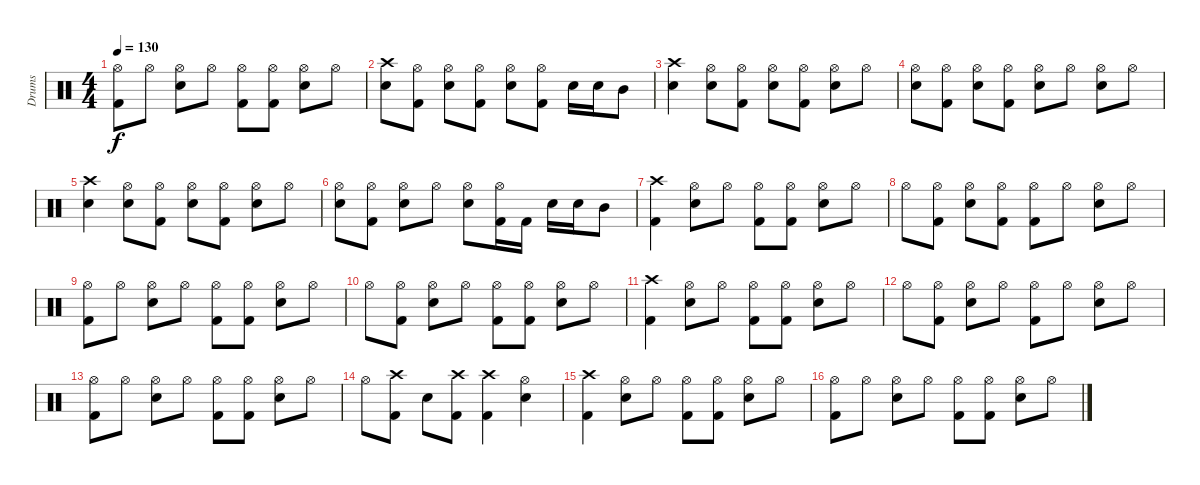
\track ("Drums" "Drums") {instrument percussion}
\staff {score}
\articulation defaults
\ts (4 4)
\tempo 130
\clef neutral
\ks c
("Hi-Hat (open)" "Kick (hit) 2").8{dy f} "Hi-Hat (open)".8 ("Hi-Hat (open)" "Electric Snare (hit)").8 "Hi-Hat (open)".8 ("Hi-Hat (open)" "Kick (hit) 2").8 ("Hi-Hat (open)" "Kick (hit) 2").8 ("Hi-Hat (open)" "Electric Snare (hit)").8 "Hi-Hat (open)".8 |
("Crash high (hit)" "Electric Snare (hit)").8 ("Hi-Hat (open)" "Kick (hit) 2").8 ("Hi-Hat (open)" "Electric Snare (hit)").8 ("Hi-Hat (open)" "Kick (hit) 2").8 ("Hi-Hat (open)" "Electric Snare (hit)").8 ("Hi-Hat (open)" "Kick (hit) 2").8 "Electric Snare (hit)".16 "Electric Snare (hit)".16 "Mid Tom (hit)".8 |
("Crash high (hit)" "Electric Snare (hit)").4 ("Hi-Hat (open)" "Electric Snare (hit)").8 ("Hi-Hat (open)" "Kick (hit) 2").8 ("Hi-Hat (open)" "Electric Snare (hit)").8 ("Hi-Hat (open)" "Kick (hit) 2").8 ("Hi-Hat (open)" "Electric Snare (hit)").8 "Hi-Hat (open)".8 |
("Hi-Hat (open)" "Electric Snare (hit)").8 ("Hi-Hat (open)" "Kick (hit) 2").8 ("Hi-Hat (open)" "Electric Snare (hit)").8 ("Hi-Hat (open)" "Kick (hit) 2").8 ("Hi-Hat (open)" "Electric Snare (hit)").8 "Hi-Hat (open)".8 ("Hi-Hat (open)" "Electric Snare (hit)").8 "Hi-Hat (open)".8 |
("Crash high (hit)" "Electric Snare (hit)").4 ("Hi-Hat (open)" "Electric Snare (hit)").8 ("Hi-Hat (open)" "Kick (hit) 2").8 ("Hi-Hat (open)" "Electric Snare (hit)").8 ("Hi-Hat (open)" "Kick (hit) 2").8 ("Hi-Hat (open)" "Electric Snare (hit)").8 "Hi-Hat (open)".8 |
("Hi-Hat (open)" "Electric Snare (hit)").8 ("Hi-Hat (open)" "Kick (hit) 2").8 ("Hi-Hat (open)" "Electric Snare (hit)").8 "Hi-Hat (open)".8 ("Hi-Hat (open)" "Electric Snare (hit)").8 ("Hi-Hat (open)" "Kick (hit) 2").16 "Kick (hit) 2".16 "Electric Snare (hit)".16 "Electric Snare (hit)".16 "Mid Tom (hit)".8 |
("Crash high (hit)" "Kick (hit) 2").4 ("Hi-Hat (open)" "Electric Snare (hit)").8 "Hi-Hat (open)".8 ("Hi-Hat (open)" "Kick (hit) 2").8 ("Hi-Hat (open)" "Kick (hit) 2").8 ("Hi-Hat (open)" "Electric Snare (hit)").8 "Hi-Hat (open)".8 |
"Hi-Hat (open)".8 ("Hi-Hat (open)" "Kick (hit) 2").8 ("Hi-Hat (open)" "Electric Snare (hit)").8 ("Hi-Hat (open)" "Kick (hit) 2").8 ("Hi-Hat (open)" "Kick (hit) 2").8 "Hi-Hat (open)".8 ("Hi-Hat (open)" "Electric Snare (hit)").8 "Hi-Hat (open)".8 |
("Hi-Hat (open)" "Kick (hit) 2").8 "Hi-Hat (open)".8 ("Hi-Hat (open)" "Electric Snare (hit)").8 "Hi-Hat (open)".8 ("Hi-Hat (open)" "Kick (hit) 2").8 ("Hi-Hat (open)" "Kick (hit) 2").8 ("Hi-Hat (open)" "Electric Snare (hit)").8 "Hi-Hat (open)".8 |
"Hi-Hat (open)".8 ("Hi-Hat (open)" "Kick (hit) 2").8 ("Hi-Hat (open)" "Electric Snare (hit)").8 "Hi-Hat (open)".8 ("Hi-Hat (open)" "Kick (hit) 2").8 ("Hi-Hat (open)" "Kick (hit) 2").8 ("Hi-Hat (open)" "Electric Snare (hit)").8 "Hi-Hat (open)".8 |
("Crash high (hit)" "Kick (hit) 2").4 ("Hi-Hat (open)" "Electric Snare (hit)").8 "Hi-Hat (open)".8 ("Hi-Hat (open)" "Kick (hit) 2").8 ("Hi-Hat (open)" "Kick (hit) 2").8 ("Hi-Hat (open)" "Electric Snare (hit)").8 "Hi-Hat (open)".8 |
"Hi-Hat (open)".8 ("Hi-Hat (open)" "Kick (hit) 2").8 ("Hi-Hat (open)" "Electric Snare (hit)").8 "Hi-Hat (open)".8 ("Hi-Hat (open)" "Kick (hit) 2").8 "Hi-Hat (open)".8 ("Hi-Hat (open)" "Electric Snare (hit)").8 "Hi-Hat (open)".8 |
("Hi-Hat (open)" "Kick (hit) 2").8 "Hi-Hat (open)".8 ("Hi-Hat (open)" "Electric Snare (hit)").8 "Hi-Hat (open)".8 ("Hi-Hat (open)" "Kick (hit) 2").8 ("Hi-Hat (open)" "Kick (hit) 2").8 ("Hi-Hat (open)" "Electric Snare (hit)").8 "Hi-Hat (open)".8 |
"Hi-Hat (open)".8 ("Crash high (hit)" "Kick (hit) 2").8 "Electric Snare (hit)".8 ("Crash high (hit)" "Kick (hit) 2").8 ("Crash high (hit)" "Kick (hit) 2").4 ("Hi-Hat (open)" "Electric Snare (hit)").4 |
("Crash high (hit)" "Kick (hit) 2").4 ("Hi-Hat (open)" "Electric Snare (hit)").8 "Hi-Hat (open)".8 ("Hi-Hat (open)" "Kick (hit) 2").8 ("Hi-Hat (open)" "Kick (hit) 2").8 ("Hi-Hat (open)" "Electric Snare (hit)").8 "Hi-Hat (open)".8 |
("Hi-Hat (open)" "Kick (hit) 2").8 "Hi-Hat (open)".8 ("Hi-Hat (open)" "Electric Snare (hit)").8 "Hi-Hat (open)".8 ("Hi-Hat (open)" "Kick (hit) 2").8 ("Hi-Hat (open)" "Kick (hit) 2").8 ("Hi-Hat (open)" "Electric Snare (hit)").8 "Hi-Hat (open)".8
